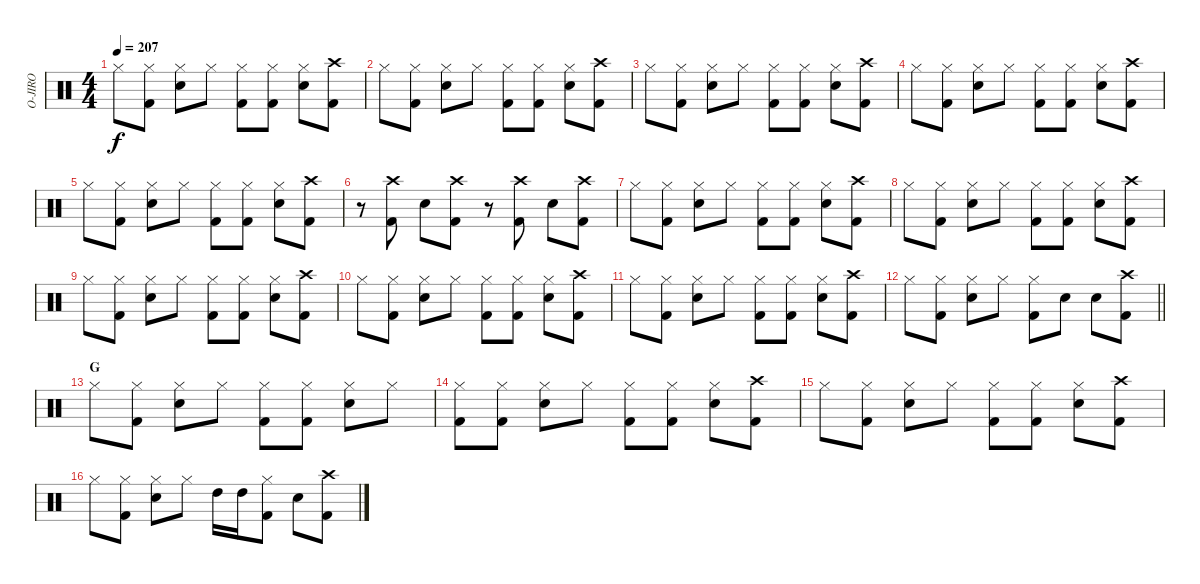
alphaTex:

\track ("O-JIRO" "O-JIRO") {instrument percussion}
\staff {score}
\articulation defaults
\ts (4 4)
\tempo 207
\clef neutral
\ks c "Hi-Hat (closed)".8{dy f}
("Hi-Hat (closed)" "Kick (hit) 2").8 ("Hi-Hat (closed)" "Snare (hit) 2").8 "Hi-Hat (closed)".8 ("Hi-Hat (closed)" "Kick (hit) 2").8 ("Hi-Hat (closed)" "Kick (hit) 2").8 ("Hi-Hat (closed)" "Snare (hit) 2").8 ("Crash high (hit)" "Kick (hit) 2").8 |
"Hi-Hat (closed)".8 ("Hi-Hat (closed)" "Kick (hit) 2").8 ("Hi-Hat (closed)" "Snare (hit) 2").8 "Hi-Hat (closed)".8 ("Hi-Hat (closed)" "Kick (hit) 2").8 ("Hi-Hat (closed)" "Kick (hit) 2").8 ("Hi-Hat (closed)" "Snare (hit) 2").8 ("Crash high (hit)" "Kick (hit) 2").8 |
"Hi-Hat (closed)".8 ("Hi-Hat (closed)" "Kick (hit) 2").8 ("Hi-Hat (closed)" "Snare (hit) 2").8 "Hi-Hat (closed)".8 ("Hi-Hat (closed)" "Kick (hit) 2").8 ("Hi-Hat (closed)" "Kick (hit) 2").8 ("Hi-Hat (closed)" "Snare (hit) 2").8 ("Crash high (hit)" "Kick (hit) 2").8 |
"Hi-Hat (closed)".8 ("Hi-Hat (closed)" "Kick (hit) 2").8 ("Hi-Hat (closed)" "Snare (hit) 2").8 "Hi-Hat (closed)".8 ("Hi-Hat (closed)" "Kick (hit) 2").8 ("Hi-Hat (closed)" "Kick (hit) 2").8 ("Hi-Hat (closed)" "Snare (hit) 2").8 ("Crash high (hit)" "Kick (hit) 2").8 |
"Hi-Hat (closed)".8 ("Hi-Hat (closed)" "Kick (hit) 2").8 ("Hi-Hat (closed)" "Snare (hit) 2").8 "Hi-Hat (closed)".8 ("Hi-Hat (closed)" "Kick (hit) 2").8 ("Hi-Hat (closed)" "Kick (hit) 2").8 ("Hi-Hat (closed)" "Snare (hit) 2").8 ("Crash high (hit)" "Kick (hit) 2").8 |
r.8 ("Crash high (hit)" "Kick (hit) 2").8 "Snare (hit) 2".8 ("Crash high (hit)" "Kick (hit) 2").8 r.8 ("Crash high (hit)" "Kick (hit) 2").8 "Snare (hit) 2".8 ("Crash high (hit)" "Kick (hit) 2").8 |
"Hi-Hat (closed)".8 ("Hi-Hat (closed)" "Kick (hit) 2").8 ("Hi-Hat (closed)" "Snare (hit) 2").8 "Hi-Hat (closed)".8 ("Hi-Hat (closed)" "Kick (hit) 2").8 ("Hi-Hat (closed)" "Kick (hit) 2").8 ("Hi-Hat (closed)" "Snare (hit) 2").8 ("Crash high (hit)" "Kick (hit) 2").8 |
"Hi-Hat (closed)".8 ("Hi-Hat (closed)" "Kick (hit) 2").8 ("Hi-Hat (closed)" "Snare (hit) 2").8 "Hi-Hat (closed)".8 ("Hi-Hat (closed)" "Kick (hit) 2").8 ("Hi-Hat (closed)" "Kick (hit) 2").8 ("Hi-Hat (closed)" "Snare (hit) 2").8 ("Crash high (hit)" "Kick (hit) 2").8 |
"Hi-Hat (closed)".8 ("Hi-Hat (closed)" "Kick (hit) 2").8 ("Hi-Hat (closed)" "Snare (hit) 2").8 "Hi-Hat (closed)".8 ("Hi-Hat (closed)" "Kick (hit) 2").8 ("Hi-Hat (closed)" "Kick (hit) 2").8 ("Hi-Hat (closed)" "Snare (hit) 2").8 ("Crash high (hit)" "Kick (hit) 2").8 |
"Hi-Hat (closed)".8 ("Hi-Hat (closed)" "Kick (hit) 2").8 ("Hi-Hat (closed)" "Snare (hit) 2").8 "Hi-Hat (closed)".8 ("Hi-Hat (closed)" "Kick (hit) 2").8 ("Hi-Hat (closed)" "Kick (hit) 2").8 ("Hi-Hat (closed)" "Snare (hit) 2").8 ("Crash high (hit)" "Kick (hit) 2").8 |
"Hi-Hat (closed)".8 ("Hi-Hat (closed)" "Kick (hit) 2").8 ("Hi-Hat (closed)" "Snare (hit) 2").8 "Hi-Hat (closed)".8 ("Hi-Hat (closed)" "Kick (hit) 2").8 ("Hi-Hat (closed)" "Kick (hit) 2").8 ("Hi-Hat (closed)" "Snare (hit) 2").8 ("Crash high (hit)" "Kick (hit) 2").8 |
\barLineRight lightlight "Hi-Hat (closed)".8
("Hi-Hat (closed)" "Kick (hit) 2").8 ("Hi-Hat (closed)" "Snare (hit) 2").8 "Hi-Hat (closed)".8 ("Hi-Hat (closed)" "Kick (hit) 2").8 "Snare (hit) 2".8 "Snare (hit) 2".8 ("Kick (hit) 2" "Crash high (hit)").8 |
\section ("" "G")
"Hi-Hat (closed)".8 ("Hi-Hat (closed)" "Kick (hit) 2").8 ("Hi-Hat (closed)" "Snare (hit) 2").8 "Hi-Hat (closed)".8 ("Hi-Hat (closed)" "Kick (hit) 2").8 ("Hi-Hat (closed)" "Kick (hit) 2").8 ("Hi-Hat (closed)" "Snare (hit) 2").8 "Hi-Hat (closed)".8 |
("Hi-Hat (closed)" "Kick (hit) 2").8 ("Hi-Hat (closed)" "Kick (hit) 2").8 ("Hi-Hat (closed)" "Snare (hit) 2").8 "Hi-Hat (closed)".8 ("Hi-Hat (closed)" "Kick (hit) 2").8 ("Hi-Hat (closed)" "Kick (hit) 2").8 ("Hi-Hat (closed)" "Snare (hit) 2").8 ("Crash high (hit)" "Kick (hit) 2").8 |
"Hi-Hat (closed)".8 ("Hi-Hat (closed)" "Kick (hit) 2").8 ("Hi-Hat (closed)" "Snare (hit) 2").8 "Hi-Hat (closed)".8 ("Hi-Hat (closed)" "Kick (hit) 2").8 ("Hi-Hat (closed)" "Kick (hit) 2").8 ("Hi-Hat (closed)" "Snare (hit) 2").8 ("Crash high (hit)" "Kick (hit) 2").8 |
"Hi-Hat (closed)".8 ("Hi-Hat (closed)" "Kick (hit) 2").8 ("Hi-Hat (closed)" "Snare (hit) 2").8 "Hi-Hat (closed)".8 "High Tom (hit)".16 "High Tom (hit)".16 ("Hi-Hat (closed)" "Kick (hit) 2").8 "Snare (hit) 2".8 ("Crash high (hit)" "Kick (hit) 2").8
